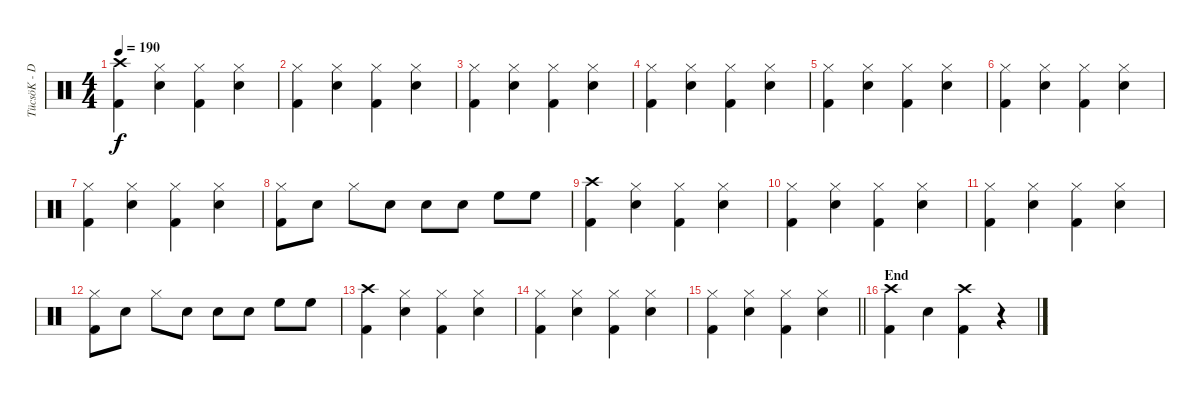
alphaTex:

\track ("TücsöK - Dob" "TücsöK - D") {instrument percussion}
\staff {score}
\articulation defaults
\ts (4 4)
\tempo 190
\clef neutral
\ks c
("Crash high (hit)" "Kick (hit) 2").4{dy f} ("Hi-Hat (closed)" "Snare (hit) 2").4 ("Hi-Hat (closed)" "Kick (hit) 2").4 ("Hi-Hat (closed)" "Snare (hit) 2").4 |
("Hi-Hat (closed)" "Kick (hit) 2").4 ("Hi-Hat (closed)" "Snare (hit) 2").4 ("Hi-Hat (closed)" "Kick (hit) 2").4 ("Hi-Hat (closed)" "Snare (hit) 2").4 |
("Hi-Hat (closed)" "Kick (hit) 2").4 ("Hi-Hat (closed)" "Snare (hit) 2").4 ("Hi-Hat (closed)" "Kick (hit) 2").4 ("Hi-Hat (closed)" "Snare (hit) 2").4 |
("Hi-Hat (closed)" "Kick (hit) 2").4 ("Hi-Hat (closed)" "Snare (hit) 2").4 ("Hi-Hat (closed)" "Kick (hit) 2").4 ("Hi-Hat (closed)" "Snare (hit) 2").4 |
("Hi-Hat (closed)" "Kick (hit) 2").4 ("Hi-Hat (closed)" "Snare (hit) 2").4 ("Hi-Hat (closed)" "Kick (hit) 2").4 ("Hi-Hat (closed)" "Snare (hit) 2").4 |
("Hi-Hat (closed)" "Kick (hit) 2").4 ("Hi-Hat (closed)" "Snare (hit) 2").4 ("Hi-Hat (closed)" "Kick (hit) 2").4 ("Hi-Hat (closed)" "Snare (hit) 2").4 |
("Hi-Hat (closed)" "Kick (hit) 2").4 ("Hi-Hat (closed)" "Snare (hit) 2").4 ("Hi-Hat (closed)" "Kick (hit) 2").4 ("Hi-Hat (closed)" "Snare (hit) 2").4 |
("Hi-Hat (closed)" "Kick (hit) 2").8 "Snare (hit) 2".8 "Hi-Hat (closed)".8 "Snare (hit) 2".8 "Snare (hit) 2".8 "Snare (hit) 2".8 "High Floor Tom (hit)".8 "High Floor Tom (hit)".8 |
("Crash high (hit)" "Kick (hit) 2").4 ("Hi-Hat (closed)" "Snare (hit) 2").4 ("Hi-Hat (closed)" "Kick (hit) 2").4 ("Hi-Hat (closed)" "Snare (hit) 2").4 |
("Hi-Hat (closed)" "Kick (hit) 2").4 ("Hi-Hat (closed)" "Snare (hit) 2").4 ("Hi-Hat (closed)" "Kick (hit) 2").4 ("Hi-Hat (closed)" "Snare (hit) 2").4 |
("Hi-Hat (closed)" "Kick (hit) 2").4 ("Hi-Hat (closed)" "Snare (hit) 2").4 ("Hi-Hat (closed)" "Kick (hit) 2").4 ("Hi-Hat (closed)" "Snare (hit) 2").4 |
("Hi-Hat (closed)" "Kick (hit) 2").8 "Snare (hit) 2".8 "Hi-Hat (closed)".8 "Snare (hit) 2".8 "Snare (hit) 2".8 "Snare (hit) 2".8 "High Floor Tom (hit)".8 "High Floor Tom (hit)".8 |
("Crash high (hit)" "Kick (hit) 2").4 ("Hi-Hat (closed)" "Snare (hit) 2").4 ("Hi-Hat (closed)" "Kick (hit) 2").4 ("Hi-Hat (closed)" "Snare (hit) 2").4 |
("Hi-Hat (closed)" "Kick (hit) 2").4 ("Hi-Hat (closed)" "Snare (hit) 2").4 ("Hi-Hat (closed)" "Kick (hit) 2").4 ("Hi-Hat (closed)" "Snare (hit) 2").4 |
\barLineRight lightlight
("Hi-Hat (closed)" "Kick (hit) 2").4 ("Hi-Hat (closed)" "Snare (hit) 2").4 ("Hi-Hat (closed)" "Kick (hit) 2").4 ("Hi-Hat (closed)" "Snare (hit) 2").4 |
\section ("" "End")
("Crash high (hit)" "Kick (hit) 2").4 "Snare (hit) 2".4 ("Crash high (hit)" "Kick (hit) 2").4 r.4
